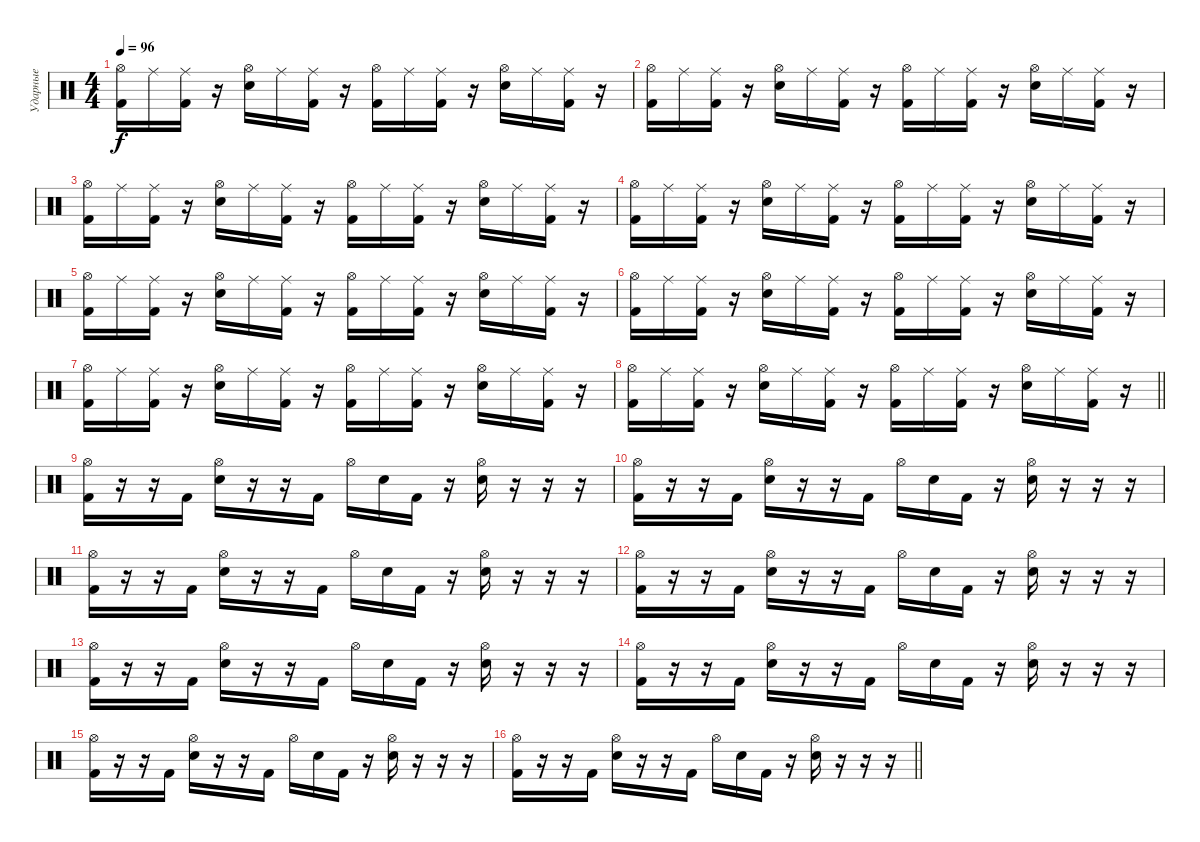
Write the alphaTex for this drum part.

\track ("Ударные" "Ударные") {instrument percussion}
\staff {score}
\articulation defaults
\ts (4 4)
\section ("" "")
\tempo 96
\clef neutral
\ks c
("Hi-Hat (open)" "Kick (hit) 2").16{dy f} "Ride (middle)".16 ("Ride (middle)" "Kick (hit) 2").16 r.16 ("Hi-Hat (open)" "Electric Snare (hit)").16 "Ride (middle)".16 ("Ride (middle)" "Kick (hit) 2").16 r.16 ("Hi-Hat (open)" "Kick (hit) 2").16 "Ride (middle)".16 ("Ride (middle)" "Kick (hit) 2").16 r.16 ("Hi-Hat (open)" "Electric Snare (hit)").16 "Ride (middle)".16 ("Ride (middle)" "Kick (hit) 2").16 r.16 |
("Hi-Hat (open)" "Kick (hit) 2").16 "Ride (middle)".16 ("Ride (middle)" "Kick (hit) 2").16 r.16 ("Hi-Hat (open)" "Electric Snare (hit)").16 "Ride (middle)".16 ("Ride (middle)" "Kick (hit) 2").16 r.16 ("Hi-Hat (open)" "Kick (hit) 2").16 "Ride (middle)".16 ("Ride (middle)" "Kick (hit) 2").16 r.16 ("Hi-Hat (open)" "Electric Snare (hit)").16 "Ride (middle)".16 ("Ride (middle)" "Kick (hit) 2").16 r.16 |
("Hi-Hat (open)" "Kick (hit) 2").16 "Ride (middle)".16 ("Ride (middle)" "Kick (hit) 2").16 r.16 ("Hi-Hat (open)" "Electric Snare (hit)").16 "Ride (middle)".16 ("Ride (middle)" "Kick (hit) 2").16 r.16 ("Hi-Hat (open)" "Kick (hit) 2").16 "Ride (middle)".16 ("Ride (middle)" "Kick (hit) 2").16 r.16 ("Hi-Hat (open)" "Electric Snare (hit)").16 "Ride (middle)".16 ("Ride (middle)" "Kick (hit) 2").16 r.16 |
("Hi-Hat (open)" "Kick (hit) 2").16 "Ride (middle)".16 ("Ride (middle)" "Kick (hit) 2").16 r.16 ("Hi-Hat (open)" "Electric Snare (hit)").16 "Ride (middle)".16 ("Ride (middle)" "Kick (hit) 2").16 r.16 ("Hi-Hat (open)" "Kick (hit) 2").16 "Ride (middle)".16 ("Ride (middle)" "Kick (hit) 2").16 r.16 ("Hi-Hat (open)" "Electric Snare (hit)").16 "Ride (middle)".16 ("Ride (middle)" "Kick (hit) 2").16 r.16 |
("Hi-Hat (open)" "Kick (hit) 2").16 "Ride (middle)".16 ("Ride (middle)" "Kick (hit) 2").16 r.16 ("Hi-Hat (open)" "Electric Snare (hit)").16 "Ride (middle)".16 ("Ride (middle)" "Kick (hit) 2").16 r.16 ("Hi-Hat (open)" "Kick (hit) 2").16 "Ride (middle)".16 ("Ride (middle)" "Kick (hit) 2").16 r.16 ("Hi-Hat (open)" "Electric Snare (hit)").16 "Ride (middle)".16 ("Ride (middle)" "Kick (hit) 2").16 r.16 |
("Hi-Hat (open)" "Kick (hit) 2").16 "Ride (middle)".16 ("Ride (middle)" "Kick (hit) 2").16 r.16 ("Hi-Hat (open)" "Electric Snare (hit)").16 "Ride (middle)".16 ("Ride (middle)" "Kick (hit) 2").16 r.16 ("Hi-Hat (open)" "Kick (hit) 2").16 "Ride (middle)".16 ("Ride (middle)" "Kick (hit) 2").16 r.16 ("Hi-Hat (open)" "Electric Snare (hit)").16 "Ride (middle)".16 ("Ride (middle)" "Kick (hit) 2").16 r.16 |
("Hi-Hat (open)" "Kick (hit) 2").16 "Ride (middle)".16 ("Ride (middle)" "Kick (hit) 2").16 r.16 ("Hi-Hat (open)" "Electric Snare (hit)").16 "Ride (middle)".16 ("Ride (middle)" "Kick (hit) 2").16 r.16 ("Hi-Hat (open)" "Kick (hit) 2").16 "Ride (middle)".16 ("Ride (middle)" "Kick (hit) 2").16 r.16 ("Hi-Hat (open)" "Electric Snare (hit)").16 "Ride (middle)".16 ("Ride (middle)" "Kick (hit) 2").16 r.16 |
\barLineRight lightlight
("Hi-Hat (open)" "Kick (hit) 2").16 "Ride (middle)".16 ("Ride (middle)" "Kick (hit) 2").16 r.16 ("Hi-Hat (open)" "Electric Snare (hit)").16 "Ride (middle)".16 ("Ride (middle)" "Kick (hit) 2").16 r.16 ("Hi-Hat (open)" "Kick (hit) 2").16 "Ride (middle)".16 ("Ride (middle)" "Kick (hit) 2").16 r.16 ("Hi-Hat (open)" "Electric Snare (hit)").16 "Ride (middle)".16 ("Ride (middle)" "Kick (hit) 2").16 r.16 |
\section ("" "")
("Hi-Hat (open)" "Kick (hit) 2").16 r.16 r.16 "Kick (hit) 2".16 ("Hi-Hat (open)" "Electric Snare (hit)").16 r.16 r.16 "Kick (hit) 2".16 "Hi-Hat (open)".16 "Electric Snare (hit)".16 "Kick (hit) 2".16 r.16 ("Hi-Hat (open)" "Electric Snare (hit)").16 r.16 r.16 r.16 |
("Hi-Hat (open)" "Kick (hit) 2").16 r.16 r.16 "Kick (hit) 2".16 ("Hi-Hat (open)" "Electric Snare (hit)").16 r.16 r.16 "Kick (hit) 2".16 "Hi-Hat (open)".16 "Electric Snare (hit)".16 "Kick (hit) 2".16 r.16 ("Hi-Hat (open)" "Electric Snare (hit)").16 r.16 r.16 r.16 |
("Hi-Hat (open)" "Kick (hit) 2").16 r.16 r.16 "Kick (hit) 2".16 ("Hi-Hat (open)" "Electric Snare (hit)").16 r.16 r.16 "Kick (hit) 2".16 "Hi-Hat (open)".16 "Electric Snare (hit)".16 "Kick (hit) 2".16 r.16 ("Hi-Hat (open)" "Electric Snare (hit)").16 r.16 r.16 r.16 |
("Hi-Hat (open)" "Kick (hit) 2").16 r.16 r.16 "Kick (hit) 2".16 ("Hi-Hat (open)" "Electric Snare (hit)").16 r.16 r.16 "Kick (hit) 2".16 "Hi-Hat (open)".16 "Electric Snare (hit)".16 "Kick (hit) 2".16 r.16 ("Hi-Hat (open)" "Electric Snare (hit)").16 r.16 r.16 r.16 |
("Hi-Hat (open)" "Kick (hit) 2").16 r.16 r.16 "Kick (hit) 2".16 ("Hi-Hat (open)" "Electric Snare (hit)").16 r.16 r.16 "Kick (hit) 2".16 "Hi-Hat (open)".16 "Electric Snare (hit)".16 "Kick (hit) 2".16 r.16 ("Hi-Hat (open)" "Electric Snare (hit)").16 r.16 r.16 r.16 |
("Hi-Hat (open)" "Kick (hit) 2").16 r.16 r.16 "Kick (hit) 2".16 ("Hi-Hat (open)" "Electric Snare (hit)").16 r.16 r.16 "Kick (hit) 2".16 "Hi-Hat (open)".16 "Electric Snare (hit)".16 "Kick (hit) 2".16 r.16 ("Hi-Hat (open)" "Electric Snare (hit)").16 r.16 r.16 r.16 |
("Hi-Hat (open)" "Kick (hit) 2").16 r.16 r.16 "Kick (hit) 2".16 ("Hi-Hat (open)" "Electric Snare (hit)").16 r.16 r.16 "Kick (hit) 2".16 "Hi-Hat (open)".16 "Electric Snare (hit)".16 "Kick (hit) 2".16 r.16 ("Hi-Hat (open)" "Electric Snare (hit)").16 r.16 r.16 r.16 |
\barLineRight lightlight
("Hi-Hat (open)" "Kick (hit) 2").16 r.16 r.16 "Kick (hit) 2".16 ("Hi-Hat (open)" "Electric Snare (hit)").16 r.16 r.16 "Kick (hit) 2".16 "Hi-Hat (open)".16 "Electric Snare (hit)".16 "Kick (hit) 2".16 r.16 ("Hi-Hat (open)" "Electric Snare (hit)").16 r.16 r.16 r.16
